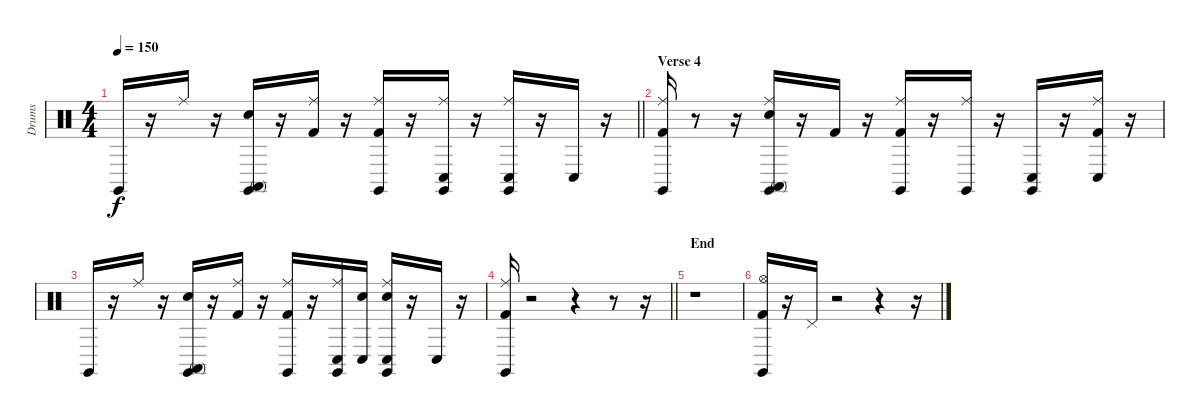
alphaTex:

\track ("Drums" "Drums") {instrument percussion}
\staff {score}
\articulation defaults
\ts (4 4)
\tempo 150
\clef neutral
\barLineRight lightlight
\ks c "Claves (hit)".16{dy f}
r.16 "Ride (middle)".16 r.16 ("Snare (hit) 2" "Conga high (mute)" "Claves (hit)").16 r.16 ("Kick (hit) 2" "Ride (middle)").16 r.16 ("Kick (hit) 2" "Ride (middle)" "Claves (hit)").16 r.16 ("Ride (middle)" "Conga low (hit)" "Claves (hit)").16 r.16 ("Ride (middle)" "Conga low (hit)" "Claves (hit)").16 r.16 "Conga low (hit)".16 r.16 |
\section ("" "Verse 4")
("Kick (hit) 2" "Ride (middle)" "Claves (hit)").16 r.8 r.16 ("Snare (hit) 2" "Ride (middle)" "Conga high (mute)" "Claves (hit)").16 r.16 "Kick (hit) 2".16 r.16 ("Kick (hit) 2" "Ride (middle)" "Claves (hit)").16 r.16 ("Ride (middle)" "Claves (hit)").16 r.16 ("Conga low (hit)" "Claves (hit)").16 r.16 ("Kick (hit) 2" "Ride (middle)" "Conga low (hit)").16 r.16 |
"Claves (hit)".16 r.16 "Ride (middle)".16 r.16 ("Snare (hit) 2" "Conga high (mute)" "Claves (hit)").16 r.16 ("Kick (hit) 2" "Ride (middle)").16 r.16 ("Kick (hit) 2" "Ride (middle)" "Claves (hit)").16 r.16 ("Ride (middle)" "Conga low (hit)" "Claves (hit)").16 ("Snare (hit)" "Conga low (hit)").16 ("Snare (hit)" "Ride (middle)" "Conga low (hit)" "Claves (hit)").16 r.16 "Conga low (hit)".16 r.16 |
\barLineRight lightlight
("Kick (hit) 2" "Ride (middle)" "Claves (hit)").16 r.2 r.4 r.8 r.16 |
\section ("" "End")
r.1 |
("Kick (hit) 2" "Hi-Hat (open)" "Claves (hit)").16 r.16 "Pedal Hi-Hat (hit)".16 r.2 r.4 r.16
